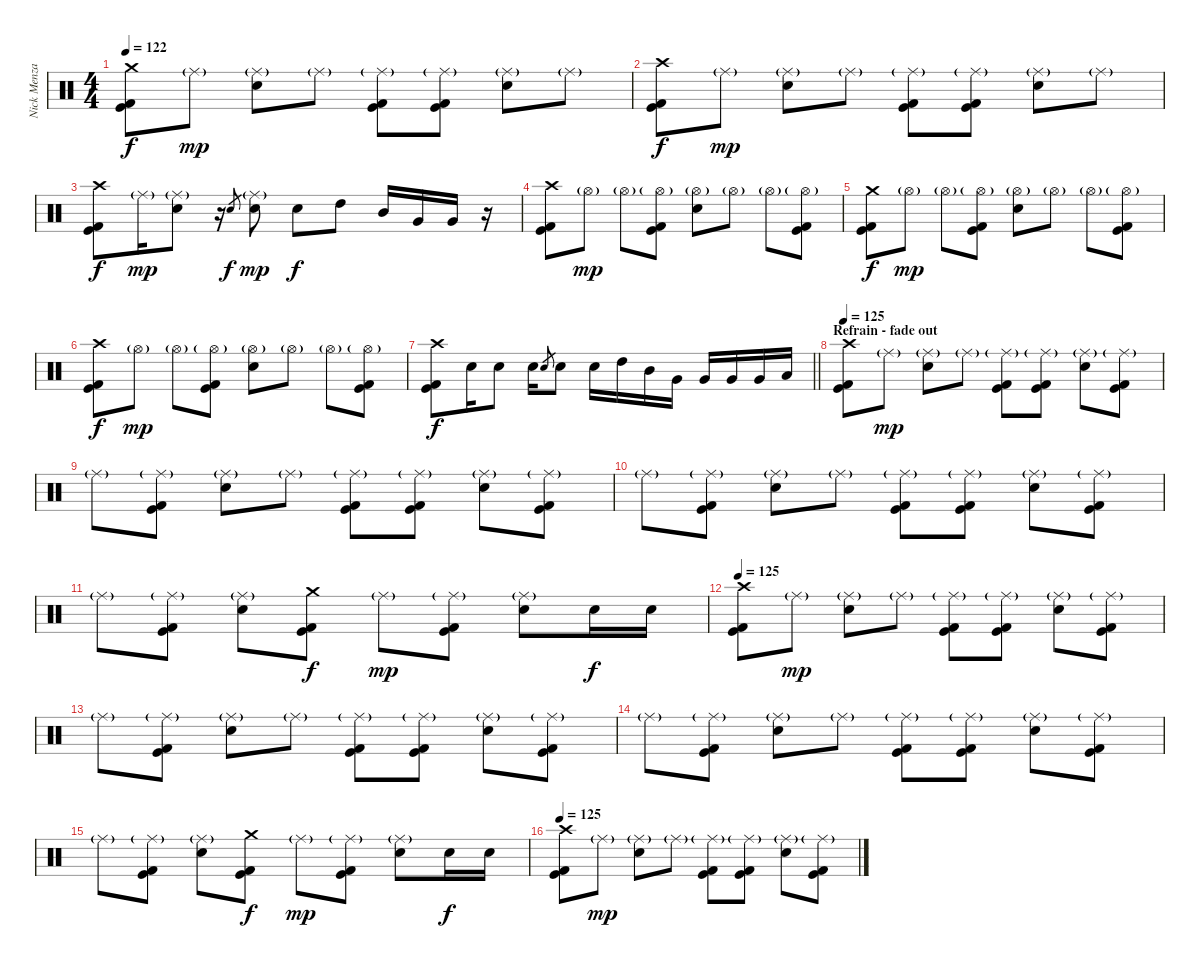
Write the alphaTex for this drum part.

\track ("Nick Menza" "Nick Menza") {instrument percussion}
\staff {score}
\articulation defaults
\ts (4 4)
\tempo 122
\clef neutral
\ks c
("Crash medium (hit)" "Kick (hit)" "Kick (hit) 2").8{dy f} "Ride (middle)"{g}.8{dy mp} ("Ride (middle)"{g} "Electric Snare (hit)").8 "Ride (middle)"{g}.8 ("Ride (middle)"{g} "Kick (hit)" "Kick (hit) 2").8 ("Ride (middle)"{g} "Kick (hit)" "Kick (hit) 2").8 ("Ride (middle)"{g} "Electric Snare (hit)").8 "Ride (middle)"{g}.8 |
("Crash high (hit)" "Kick (hit)" "Kick (hit) 2").8{dy f} "Ride (middle)"{g}.8{dy mp} ("Ride (middle)"{g} "Electric Snare (hit)").8 "Ride (middle)"{g}.8 ("Ride (middle)"{g} "Kick (hit)" "Kick (hit) 2").8 ("Ride (middle)"{g} "Kick (hit)" "Kick (hit) 2").8 ("Ride (middle)"{g} "Electric Snare (hit)").8 "Ride (middle)"{g}.8 |
("Crash high (hit)" "Kick (hit)" "Kick (hit) 2").8{dy f} "Ride (middle)"{g}.16{dy mp} ("Ride (middle)"{g} "Electric Snare (hit)").8 r.16 "Electric Snare (hit)".8{gr dy f} ("Ride (middle)"{g} "Electric Snare (hit)").8{dy mp} "Electric Snare (hit)".8{dy f} "High Tom (hit)".8 "Mid Tom (hit)".16 "Very Low Tom (hit)".16 "Very Low Tom (hit)".16 r.16 |
("Crash high (hit)" "Kick (hit)" "Kick (hit) 2").8 "Hi-Hat (open)"{g}.8{dy mp} "Hi-Hat (open)"{g}.8 ("Hi-Hat (open)"{g} "Kick (hit)" "Kick (hit) 2").8 ("Hi-Hat (open)"{g} "Electric Snare (hit)").8 "Hi-Hat (open)"{g}.8 "Hi-Hat (open)"{g}.8 ("Hi-Hat (open)"{g} "Kick (hit)" "Kick (hit) 2").8 |
("Crash medium (hit)" "Kick (hit)" "Kick (hit) 2").8{dy f} "Hi-Hat (open)"{g}.8{dy mp} "Hi-Hat (open)"{g}.8 ("Hi-Hat (open)"{g} "Kick (hit)" "Kick (hit) 2").8 ("Hi-Hat (open)"{g} "Electric Snare (hit)").8 "Hi-Hat (open)"{g}.8 "Hi-Hat (open)"{g}.8 ("Hi-Hat (open)"{g} "Kick (hit)" "Kick (hit) 2").8 |
("Crash high (hit)" "Kick (hit)" "Kick (hit) 2").8{dy f} "Hi-Hat (open)"{g}.8{dy mp} "Hi-Hat (open)"{g}.8 ("Hi-Hat (open)"{g} "Kick (hit)" "Kick (hit) 2").8 ("Hi-Hat (open)"{g} "Electric Snare (hit)").8 "Hi-Hat (open)"{g}.8 "Hi-Hat (open)"{g}.8 ("Hi-Hat (open)"{g} "Kick (hit)" "Kick (hit) 2").8 |
\barLineRight lightlight
("Crash high (hit)" "Kick (hit)" "Kick (hit) 2").8{dy f} "Electric Snare (hit)".16 "Electric Snare (hit)".8 "Electric Snare (hit)".16 "Electric Snare (hit)".8{gr} "Electric Snare (hit)".8 "Electric Snare (hit)".16 "High Tom (hit)".16 "Mid Tom (hit)".16 "Very Low Tom (hit)".16 "Very Low Tom (hit)".16 "Very Low Tom (hit)".16 "Very Low Tom (hit)".16 "Low Floor Tom (hit)".16 |
\section ("" "Refrain - fade out")
\tempo 125
("Crash high (hit)" "Kick (hit)" "Kick (hit) 2").8 "Ride (middle)"{g}.8{dy mp} ("Ride (middle)"{g} "Electric Snare (hit)").8 "Ride (middle)"{g}.8 ("Ride (middle)"{g} "Kick (hit)" "Kick (hit) 2").8 ("Ride (middle)"{g} "Kick (hit)" "Kick (hit) 2").8 ("Ride (middle)"{g} "Electric Snare (hit)").8 ("Ride (middle)"{g} "Kick (hit)" "Kick (hit) 2").8 |
"Ride (middle)"{g}.8 ("Ride (middle)"{g} "Kick (hit)" "Kick (hit) 2").8 ("Ride (middle)"{g} "Electric Snare (hit)").8 "Ride (middle)"{g}.8 ("Ride (middle)"{g} "Kick (hit)" "Kick (hit) 2").8 ("Ride (middle)"{g} "Kick (hit)" "Kick (hit) 2").8 ("Ride (middle)"{g} "Electric Snare (hit)").8 ("Ride (middle)"{g} "Kick (hit)" "Kick (hit) 2").8 |
"Ride (middle)"{g}.8 ("Ride (middle)"{g} "Kick (hit)" "Kick (hit) 2").8 ("Ride (middle)"{g} "Electric Snare (hit)").8 "Ride (middle)"{g}.8 ("Ride (middle)"{g} "Kick (hit)" "Kick (hit) 2").8 ("Ride (middle)"{g} "Kick (hit)" "Kick (hit) 2").8 ("Ride (middle)"{g} "Electric Snare (hit)").8 ("Ride (middle)"{g} "Kick (hit)" "Kick (hit) 2").8 |
"Ride (middle)"{g}.8 ("Ride (middle)"{g} "Kick (hit)" "Kick (hit) 2").8 ("Ride (middle)"{g} "Electric Snare (hit)").8 ("Crash medium (hit)" "Kick (hit)" "Kick (hit) 2").8{dy f} "Ride (middle)"{g}.8{dy mp} ("Ride (middle)"{g} "Kick (hit)" "Kick (hit) 2").8 ("Ride (middle)"{g} "Electric Snare (hit)").8 "Electric Snare (hit)".16{dy f} "Electric Snare (hit)".16 |
\tempo 125
("Crash high (hit)" "Kick (hit)" "Kick (hit) 2").8 "Ride (middle)"{g}.8{dy mp} ("Ride (middle)"{g} "Electric Snare (hit)").8 "Ride (middle)"{g}.8 ("Ride (middle)"{g} "Kick (hit)" "Kick (hit) 2").8 ("Ride (middle)"{g} "Kick (hit)" "Kick (hit) 2").8 ("Ride (middle)"{g} "Electric Snare (hit)").8 ("Ride (middle)"{g} "Kick (hit)" "Kick (hit) 2").8 |
"Ride (middle)"{g}.8 ("Ride (middle)"{g} "Kick (hit)" "Kick (hit) 2").8 ("Ride (middle)"{g} "Electric Snare (hit)").8 "Ride (middle)"{g}.8 ("Ride (middle)"{g} "Kick (hit)" "Kick (hit) 2").8 ("Ride (middle)"{g} "Kick (hit)" "Kick (hit) 2").8 ("Ride (middle)"{g} "Electric Snare (hit)").8 ("Ride (middle)"{g} "Kick (hit)" "Kick (hit) 2").8 |
"Ride (middle)"{g}.8 ("Ride (middle)"{g} "Kick (hit)" "Kick (hit) 2").8 ("Ride (middle)"{g} "Electric Snare (hit)").8 "Ride (middle)"{g}.8 ("Ride (middle)"{g} "Kick (hit)" "Kick (hit) 2").8 ("Ride (middle)"{g} "Kick (hit)" "Kick (hit) 2").8 ("Ride (middle)"{g} "Electric Snare (hit)").8 ("Ride (middle)"{g} "Kick (hit)" "Kick (hit) 2").8 |
"Ride (middle)"{g}.8 ("Ride (middle)"{g} "Kick (hit)" "Kick (hit) 2").8 ("Ride (middle)"{g} "Electric Snare (hit)").8 ("Crash medium (hit)" "Kick (hit)" "Kick (hit) 2").8{dy f} "Ride (middle)"{g}.8{dy mp} ("Ride (middle)"{g} "Kick (hit)" "Kick (hit) 2").8 ("Ride (middle)"{g} "Electric Snare (hit)").8 "Electric Snare (hit)".16{dy f} "Electric Snare (hit)".16 |
\tempo 125
("Crash high (hit)" "Kick (hit)" "Kick (hit) 2").8 "Ride (middle)"{g}.8{dy mp} ("Ride (middle)"{g} "Electric Snare (hit)").8 "Ride (middle)"{g}.8 ("Ride (middle)"{g} "Kick (hit)" "Kick (hit) 2").8 ("Ride (middle)"{g} "Kick (hit)" "Kick (hit) 2").8 ("Ride (middle)"{g} "Electric Snare (hit)").8 ("Ride (middle)"{g} "Kick (hit)" "Kick (hit) 2").8
